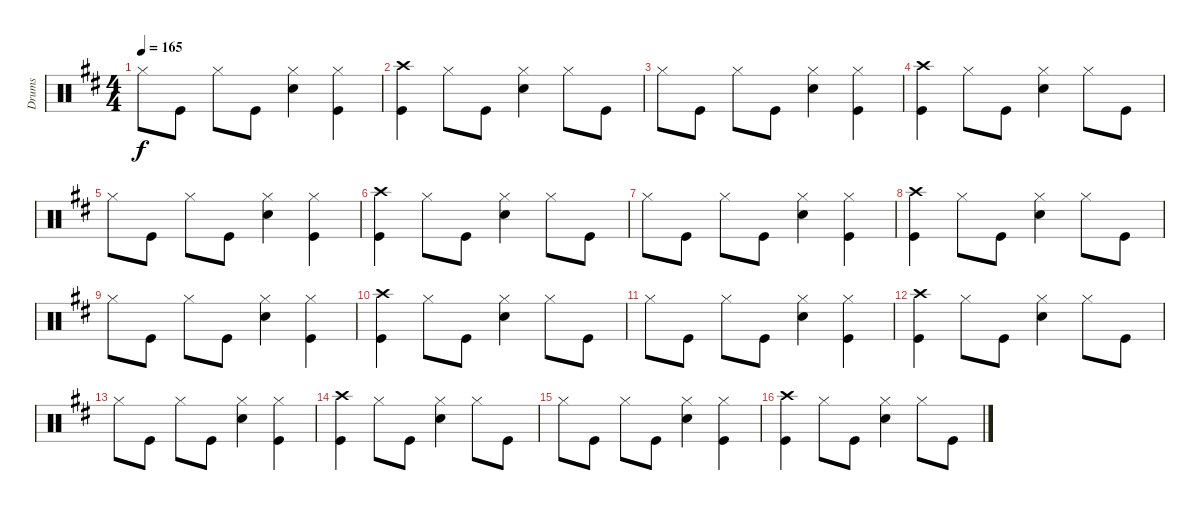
\track ("Drums" "Drums") {instrument percussion}
\staff {score}
\articulation defaults
\ts (4 4)
\tempo 165
\clef neutral
\ks d "Hi-Hat (closed)".8{dy f} "Kick (hit)".8 "Hi-Hat (closed)".8 "Kick (hit)".8
("Hi-Hat (closed)" "Snare (hit) 2").4 ("Hi-Hat (closed)" "Kick (hit)").4 |
("Crash high (hit)" "Kick (hit)").4 "Hi-Hat (closed)".8 "Kick (hit)".8 ("Hi-Hat (closed)" "Snare (hit) 2").4 "Hi-Hat (closed)".8 "Kick (hit)".8 |
"Hi-Hat (closed)".8 "Kick (hit)".8 "Hi-Hat (closed)".8 "Kick (hit)".8 ("Hi-Hat (closed)" "Snare (hit) 2").4 ("Hi-Hat (closed)" "Kick (hit)").4 |
("Crash high (hit)" "Kick (hit)").4 "Hi-Hat (closed)".8 "Kick (hit)".8 ("Hi-Hat (closed)" "Snare (hit) 2").4 "Hi-Hat (closed)".8 "Kick (hit)".8 |
"Hi-Hat (closed)".8 "Kick (hit)".8 "Hi-Hat (closed)".8 "Kick (hit)".8 ("Hi-Hat (closed)" "Snare (hit) 2").4 ("Hi-Hat (closed)" "Kick (hit)").4 |
("Crash high (hit)" "Kick (hit)").4 "Hi-Hat (closed)".8 "Kick (hit)".8 ("Hi-Hat (closed)" "Snare (hit) 2").4 "Hi-Hat (closed)".8 "Kick (hit)".8 |
"Hi-Hat (closed)".8 "Kick (hit)".8 "Hi-Hat (closed)".8 "Kick (hit)".8 ("Hi-Hat (closed)" "Snare (hit) 2").4 ("Hi-Hat (closed)" "Kick (hit)").4 |
("Crash high (hit)" "Kick (hit)").4 "Hi-Hat (closed)".8 "Kick (hit)".8 ("Hi-Hat (closed)" "Snare (hit) 2").4 "Hi-Hat (closed)".8 "Kick (hit)".8 |
"Hi-Hat (closed)".8 "Kick (hit)".8 "Hi-Hat (closed)".8 "Kick (hit)".8 ("Hi-Hat (closed)" "Snare (hit) 2").4 ("Hi-Hat (closed)" "Kick (hit)").4 |
("Crash high (hit)" "Kick (hit)").4 "Hi-Hat (closed)".8 "Kick (hit)".8 ("Hi-Hat (closed)" "Snare (hit) 2").4 "Hi-Hat (closed)".8 "Kick (hit)".8 |
"Hi-Hat (closed)".8 "Kick (hit)".8 "Hi-Hat (closed)".8 "Kick (hit)".8 ("Hi-Hat (closed)" "Snare (hit) 2").4 ("Hi-Hat (closed)" "Kick (hit)").4 |
("Crash high (hit)" "Kick (hit)").4 "Hi-Hat (closed)".8 "Kick (hit)".8 ("Hi-Hat (closed)" "Snare (hit) 2").4 "Hi-Hat (closed)".8 "Kick (hit)".8 |
"Hi-Hat (closed)".8 "Kick (hit)".8 "Hi-Hat (closed)".8 "Kick (hit)".8 ("Hi-Hat (closed)" "Snare (hit) 2").4 ("Hi-Hat (closed)" "Kick (hit)").4 |
("Crash high (hit)" "Kick (hit)").4 "Hi-Hat (closed)".8 "Kick (hit)".8 ("Hi-Hat (closed)" "Snare (hit) 2").4 "Hi-Hat (closed)".8 "Kick (hit)".8 |
"Hi-Hat (closed)".8 "Kick (hit)".8 "Hi-Hat (closed)".8 "Kick (hit)".8 ("Hi-Hat (closed)" "Snare (hit) 2").4 ("Hi-Hat (closed)" "Kick (hit)").4 |
("Crash high (hit)" "Kick (hit)").4 "Hi-Hat (closed)".8 "Kick (hit)".8 ("Hi-Hat (closed)" "Snare (hit) 2").4 "Hi-Hat (closed)".8 "Kick (hit)".8
